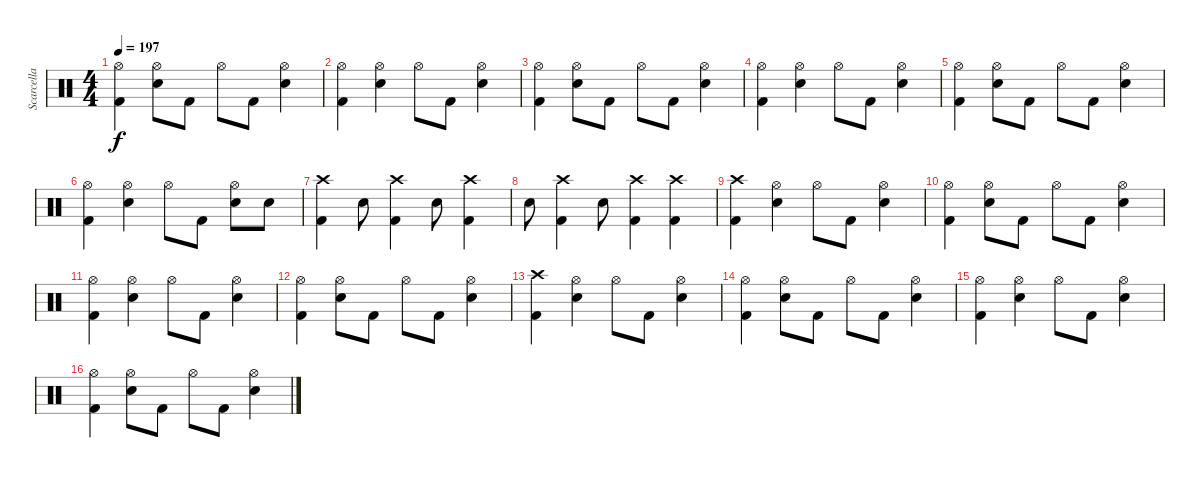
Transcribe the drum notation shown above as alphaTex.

\track ("Scarcella" "Scarcella") {instrument percussion}
\staff {score}
\articulation defaults
\ts (4 4)
\tempo 197
\clef neutral
\ks c
("Hi-Hat (open)" "Kick (hit) 2").4{dy f} ("Hi-Hat (open)" "Electric Snare (hit)").8 "Kick (hit) 2".8 "Hi-Hat (open)".8 "Kick (hit) 2".8 ("Hi-Hat (open)" "Electric Snare (hit)").4 |
("Hi-Hat (open)" "Kick (hit) 2").4 ("Hi-Hat (open)" "Electric Snare (hit)").4 "Hi-Hat (open)".8 "Kick (hit) 2".8 ("Hi-Hat (open)" "Electric Snare (hit)").4 |
("Hi-Hat (open)" "Kick (hit) 2").4 ("Hi-Hat (open)" "Electric Snare (hit)").8 "Kick (hit) 2".8 "Hi-Hat (open)".8 "Kick (hit) 2".8 ("Hi-Hat (open)" "Electric Snare (hit)").4 |
("Hi-Hat (open)" "Kick (hit) 2").4 ("Hi-Hat (open)" "Electric Snare (hit)").4 "Hi-Hat (open)".8 "Kick (hit) 2".8 ("Hi-Hat (open)" "Electric Snare (hit)").4 |
("Hi-Hat (open)" "Kick (hit) 2").4 ("Hi-Hat (open)" "Electric Snare (hit)").8 "Kick (hit) 2".8 "Hi-Hat (open)".8 "Kick (hit) 2".8 ("Hi-Hat (open)" "Electric Snare (hit)").4 |
("Hi-Hat (open)" "Kick (hit) 2").4 ("Hi-Hat (open)" "Electric Snare (hit)").4 "Hi-Hat (open)".8 "Kick (hit) 2".8 ("Hi-Hat (open)" "Electric Snare (hit)").8 "Electric Snare (hit)".8 |
("Crash high (hit)" "Kick (hit) 2").4 "Electric Snare (hit)".8 ("Crash high (hit)" "Kick (hit) 2").4 "Electric Snare (hit)".8 ("Crash high (hit)" "Kick (hit) 2").4 |
"Electric Snare (hit)".8 ("Crash high (hit)" "Kick (hit) 2").4 "Electric Snare (hit)".8 ("Crash high (hit)" "Kick (hit) 2").4 ("Crash high (hit)" "Kick (hit) 2").4 |
("Crash high (hit)" "Kick (hit) 2").4 ("Hi-Hat (open)" "Electric Snare (hit)").4 "Hi-Hat (open)".8 "Kick (hit) 2".8 ("Hi-Hat (open)" "Electric Snare (hit)").4 |
("Hi-Hat (open)" "Kick (hit) 2").4 ("Hi-Hat (open)" "Electric Snare (hit)").8 "Kick (hit) 2".8 "Hi-Hat (open)".8 "Kick (hit) 2".8 ("Hi-Hat (open)" "Electric Snare (hit)").4 |
("Hi-Hat (open)" "Kick (hit) 2").4 ("Hi-Hat (open)" "Electric Snare (hit)").4 "Hi-Hat (open)".8 "Kick (hit) 2".8 ("Hi-Hat (open)" "Electric Snare (hit)").4 |
("Hi-Hat (open)" "Kick (hit) 2").4 ("Hi-Hat (open)" "Electric Snare (hit)").8 "Kick (hit) 2".8 "Hi-Hat (open)".8 "Kick (hit) 2".8 ("Hi-Hat (open)" "Electric Snare (hit)").4 |
("Crash high (hit)" "Kick (hit) 2").4 ("Hi-Hat (open)" "Electric Snare (hit)").4 "Hi-Hat (open)".8 "Kick (hit) 2".8 ("Hi-Hat (open)" "Electric Snare (hit)").4 |
("Hi-Hat (open)" "Kick (hit) 2").4 ("Hi-Hat (open)" "Electric Snare (hit)").8 "Kick (hit) 2".8 "Hi-Hat (open)".8 "Kick (hit) 2".8 ("Hi-Hat (open)" "Electric Snare (hit)").4 |
("Hi-Hat (open)" "Kick (hit) 2").4 ("Hi-Hat (open)" "Electric Snare (hit)").4 "Hi-Hat (open)".8 "Kick (hit) 2".8 ("Hi-Hat (open)" "Electric Snare (hit)").4 |
("Hi-Hat (open)" "Kick (hit) 2").4 ("Hi-Hat (open)" "Electric Snare (hit)").8 "Kick (hit) 2".8 "Hi-Hat (open)".8 "Kick (hit) 2".8 ("Hi-Hat (open)" "Electric Snare (hit)").4
